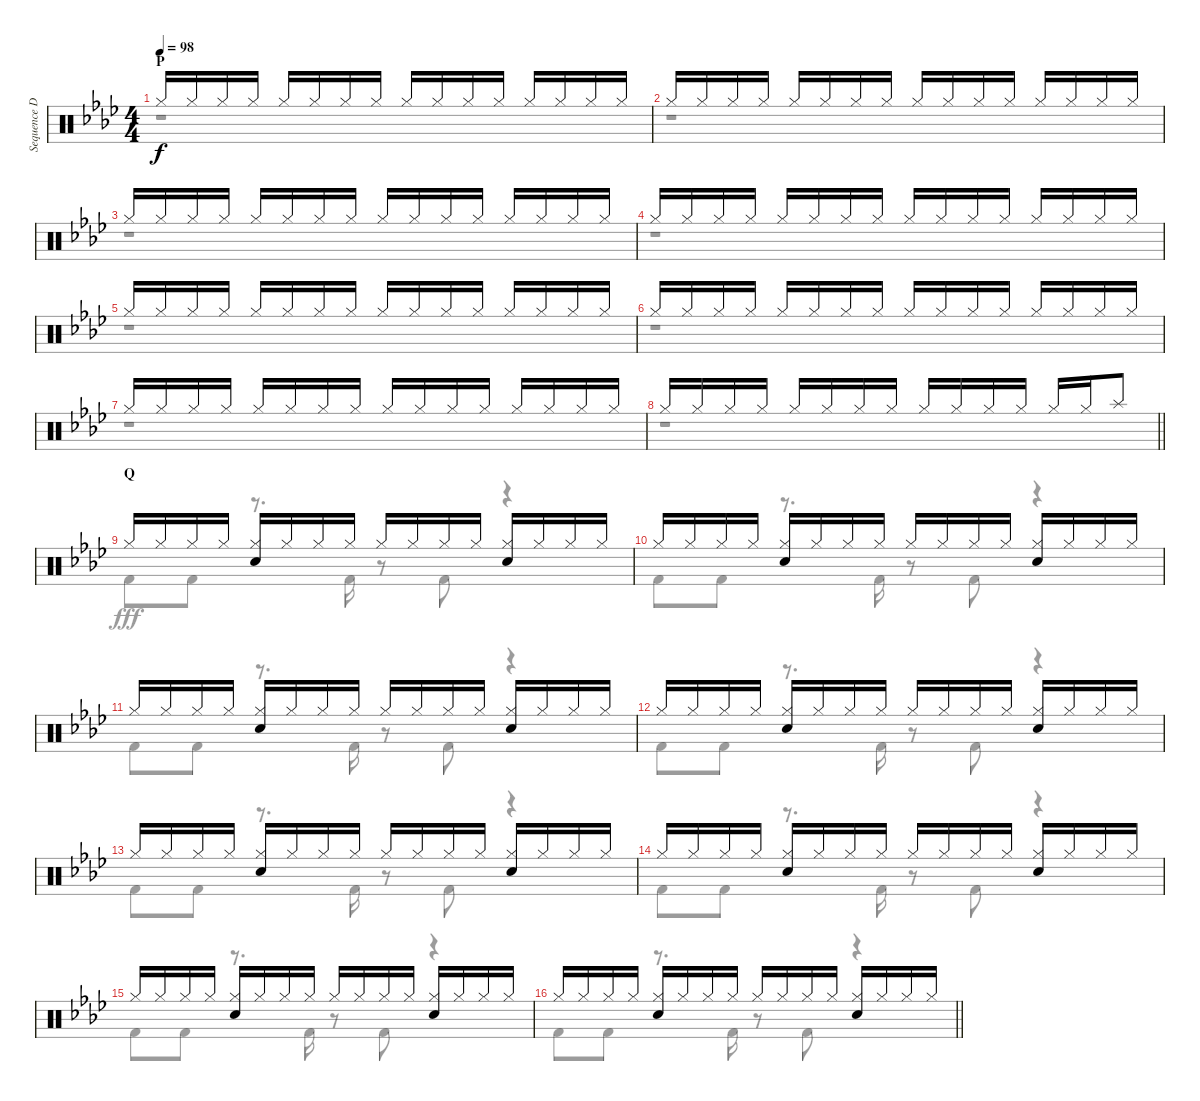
\track ("Sequence Drums I" "Sequence D") {instrument percussion}
\staff {score}
\articulation defaults
\voice
\ts (4 4)
\section ("" "P")
\tempo 98
\clef neutral
\ks ab "Hi-Hat (closed)".16{dy f} "Hi-Hat (closed)".16 "Hi-Hat (closed)".16 "Hi-Hat (closed)".16 "Hi-Hat (closed)".16 "Hi-Hat (closed)".16 "Hi-Hat (closed)".16 "Hi-Hat (closed)".16 "Hi-Hat (closed)".16 "Hi-Hat (closed)".16 "Hi-Hat (closed)".16 "Hi-Hat (closed)".16 "Hi-Hat (closed)".16 "Hi-Hat (closed)".16 "Hi-Hat (closed)".16 "Hi-Hat (closed)".16
|
"Hi-Hat (closed)".16 "Hi-Hat (closed)".16 "Hi-Hat (closed)".16 "Hi-Hat (closed)".16 "Hi-Hat (closed)".16 "Hi-Hat (closed)".16 "Hi-Hat (closed)".16 "Hi-Hat (closed)".16 "Hi-Hat (closed)".16 "Hi-Hat (closed)".16 "Hi-Hat (closed)".16 "Hi-Hat (closed)".16 "Hi-Hat (closed)".16 "Hi-Hat (closed)".16 "Hi-Hat (closed)".16 "Hi-Hat (closed)".16 |
"Hi-Hat (closed)".16 "Hi-Hat (closed)".16 "Hi-Hat (closed)".16 "Hi-Hat (closed)".16 "Hi-Hat (closed)".16 "Hi-Hat (closed)".16 "Hi-Hat (closed)".16 "Hi-Hat (closed)".16 "Hi-Hat (closed)".16 "Hi-Hat (closed)".16 "Hi-Hat (closed)".16 "Hi-Hat (closed)".16 "Hi-Hat (closed)".16 "Hi-Hat (closed)".16 "Hi-Hat (closed)".16 "Hi-Hat (closed)".16 |
"Hi-Hat (closed)".16 "Hi-Hat (closed)".16 "Hi-Hat (closed)".16 "Hi-Hat (closed)".16 "Hi-Hat (closed)".16 "Hi-Hat (closed)".16 "Hi-Hat (closed)".16 "Hi-Hat (closed)".16 "Hi-Hat (closed)".16 "Hi-Hat (closed)".16 "Hi-Hat (closed)".16 "Hi-Hat (closed)".16 "Hi-Hat (closed)".16 "Hi-Hat (closed)".16 "Hi-Hat (closed)".16 "Hi-Hat (closed)".16 |
"Hi-Hat (closed)".16 "Hi-Hat (closed)".16 "Hi-Hat (closed)".16 "Hi-Hat (closed)".16 "Hi-Hat (closed)".16 "Hi-Hat (closed)".16 "Hi-Hat (closed)".16 "Hi-Hat (closed)".16 "Hi-Hat (closed)".16 "Hi-Hat (closed)".16 "Hi-Hat (closed)".16 "Hi-Hat (closed)".16 "Hi-Hat (closed)".16 "Hi-Hat (closed)".16 "Hi-Hat (closed)".16 "Hi-Hat (closed)".16 |
"Hi-Hat (closed)".16 "Hi-Hat (closed)".16 "Hi-Hat (closed)".16 "Hi-Hat (closed)".16 "Hi-Hat (closed)".16 "Hi-Hat (closed)".16 "Hi-Hat (closed)".16 "Hi-Hat (closed)".16 "Hi-Hat (closed)".16 "Hi-Hat (closed)".16 "Hi-Hat (closed)".16 "Hi-Hat (closed)".16 "Hi-Hat (closed)".16 "Hi-Hat (closed)".16 "Hi-Hat (closed)".16 "Hi-Hat (closed)".16 |
"Hi-Hat (closed)".16 "Hi-Hat (closed)".16 "Hi-Hat (closed)".16 "Hi-Hat (closed)".16 "Hi-Hat (closed)".16 "Hi-Hat (closed)".16 "Hi-Hat (closed)".16 "Hi-Hat (closed)".16 "Hi-Hat (closed)".16 "Hi-Hat (closed)".16 "Hi-Hat (closed)".16 "Hi-Hat (closed)".16 "Hi-Hat (closed)".16 "Hi-Hat (closed)".16 "Hi-Hat (closed)".16 "Hi-Hat (closed)".16 |
\barLineRight lightlight "Hi-Hat (closed)".16 "Hi-Hat (closed)".16 "Hi-Hat (closed)".16 "Hi-Hat (closed)".16 "Hi-Hat (closed)".16 "Hi-Hat (closed)".16 "Hi-Hat (closed)".16 "Hi-Hat (closed)".16 "Hi-Hat (closed)".16 "Hi-Hat (closed)".16 "Hi-Hat (closed)".16 "Hi-Hat (closed)".16 "Hi-Hat (closed)".16 "Hi-Hat (closed)".16 "Splash (hit)".8
|
\section ("" "Q")
"Hi-Hat (closed)".16 "Hi-Hat (closed)".16 "Hi-Hat (closed)".16 "Hi-Hat (closed)".16 ("Hi-Hat (closed)" "Electric Snare (hit)").16 "Hi-Hat (closed)".16 "Hi-Hat (closed)".16 "Hi-Hat (closed)".16 "Hi-Hat (closed)".16 "Hi-Hat (closed)".16 "Hi-Hat (closed)".16 "Hi-Hat (closed)".16 ("Hi-Hat (closed)" "Electric Snare (hit)").16 "Hi-Hat (closed)".16 "Hi-Hat (closed)".16 "Hi-Hat (closed)".16 |
"Hi-Hat (closed)".16 "Hi-Hat (closed)".16 "Hi-Hat (closed)".16 "Hi-Hat (closed)".16 ("Hi-Hat (closed)" "Electric Snare (hit)").16 "Hi-Hat (closed)".16 "Hi-Hat (closed)".16 "Hi-Hat (closed)".16 "Hi-Hat (closed)".16 "Hi-Hat (closed)".16 "Hi-Hat (closed)".16 "Hi-Hat (closed)".16 ("Hi-Hat (closed)" "Electric Snare (hit)").16 "Hi-Hat (closed)".16 "Hi-Hat (closed)".16 "Hi-Hat (closed)".16 |
"Hi-Hat (closed)".16 "Hi-Hat (closed)".16 "Hi-Hat (closed)".16 "Hi-Hat (closed)".16 ("Hi-Hat (closed)" "Electric Snare (hit)").16 "Hi-Hat (closed)".16 "Hi-Hat (closed)".16 "Hi-Hat (closed)".16 "Hi-Hat (closed)".16 "Hi-Hat (closed)".16 "Hi-Hat (closed)".16 "Hi-Hat (closed)".16 ("Hi-Hat (closed)" "Electric Snare (hit)").16 "Hi-Hat (closed)".16 "Hi-Hat (closed)".16 "Hi-Hat (closed)".16 |
"Hi-Hat (closed)".16 "Hi-Hat (closed)".16 "Hi-Hat (closed)".16 "Hi-Hat (closed)".16 ("Hi-Hat (closed)" "Electric Snare (hit)").16 "Hi-Hat (closed)".16 "Hi-Hat (closed)".16 "Hi-Hat (closed)".16 "Hi-Hat (closed)".16 "Hi-Hat (closed)".16 "Hi-Hat (closed)".16 "Hi-Hat (closed)".16 ("Hi-Hat (closed)" "Electric Snare (hit)").16 "Hi-Hat (closed)".16 "Hi-Hat (closed)".16 "Hi-Hat (closed)".16 |
"Hi-Hat (closed)".16 "Hi-Hat (closed)".16 "Hi-Hat (closed)".16 "Hi-Hat (closed)".16 ("Hi-Hat (closed)" "Electric Snare (hit)").16 "Hi-Hat (closed)".16 "Hi-Hat (closed)".16 "Hi-Hat (closed)".16 "Hi-Hat (closed)".16 "Hi-Hat (closed)".16 "Hi-Hat (closed)".16 "Hi-Hat (closed)".16 ("Hi-Hat (closed)" "Electric Snare (hit)").16 "Hi-Hat (closed)".16 "Hi-Hat (closed)".16 "Hi-Hat (closed)".16 |
"Hi-Hat (closed)".16 "Hi-Hat (closed)".16 "Hi-Hat (closed)".16 "Hi-Hat (closed)".16 ("Hi-Hat (closed)" "Electric Snare (hit)").16 "Hi-Hat (closed)".16 "Hi-Hat (closed)".16 "Hi-Hat (closed)".16 "Hi-Hat (closed)".16 "Hi-Hat (closed)".16 "Hi-Hat (closed)".16 "Hi-Hat (closed)".16 ("Hi-Hat (closed)" "Electric Snare (hit)").16 "Hi-Hat (closed)".16 "Hi-Hat (closed)".16 "Hi-Hat (closed)".16 |
"Hi-Hat (closed)".16 "Hi-Hat (closed)".16 "Hi-Hat (closed)".16 "Hi-Hat (closed)".16 ("Hi-Hat (closed)" "Electric Snare (hit)").16 "Hi-Hat (closed)".16 "Hi-Hat (closed)".16 "Hi-Hat (closed)".16 "Hi-Hat (closed)".16 "Hi-Hat (closed)".16 "Hi-Hat (closed)".16 "Hi-Hat (closed)".16 ("Hi-Hat (closed)" "Electric Snare (hit)").16 "Hi-Hat (closed)".16 "Hi-Hat (closed)".16 "Hi-Hat (closed)".16 |
\barLineRight lightlight "Hi-Hat (closed)".16 "Hi-Hat (closed)".16 "Hi-Hat (closed)".16 "Hi-Hat (closed)".16
("Hi-Hat (closed)" "Electric Snare (hit)").16 "Hi-Hat (closed)".16 "Hi-Hat (closed)".16 "Hi-Hat (closed)".16 "Hi-Hat (closed)".16 "Hi-Hat (closed)".16 "Hi-Hat (closed)".16 "Hi-Hat (closed)".16 ("Hi-Hat (closed)" "Electric Snare (hit)").16 "Hi-Hat (closed)".16 "Hi-Hat (closed)".16 "Hi-Hat (closed)".16
\voice
\clef neutral
\ottava regular
\simile none
\ks ab
r.1{dy fff} |
r.1 |
r.1 |
r.1 |
r.1 |
r.1 |
r.1 |
\barLineRight lightlight
r.1 |
"Kick (hit) 2".8 "Kick (hit) 2".8 r.8{d} "Kick (hit) 2".16 r.8 "Kick (hit) 2".8 r.4 |
"Kick (hit) 2".8 "Kick (hit) 2".8 r.8{d} "Kick (hit) 2".16 r.8 "Kick (hit) 2".8 r.4 |
"Kick (hit) 2".8 "Kick (hit) 2".8 r.8{d} "Kick (hit) 2".16 r.8 "Kick (hit) 2".8 r.4 |
"Kick (hit) 2".8 "Kick (hit) 2".8 r.8{d} "Kick (hit) 2".16 r.8 "Kick (hit) 2".8 r.4 |
"Kick (hit) 2".8 "Kick (hit) 2".8 r.8{d} "Kick (hit) 2".16 r.8 "Kick (hit) 2".8 r.4 |
"Kick (hit) 2".8 "Kick (hit) 2".8 r.8{d} "Kick (hit) 2".16 r.8 "Kick (hit) 2".8 r.4 |
"Kick (hit) 2".8 "Kick (hit) 2".8 r.8{d} "Kick (hit) 2".16 r.8 "Kick (hit) 2".8 r.4 |
\barLineRight lightlight "Kick (hit) 2".8 "Kick (hit) 2".8
r.8{d} "Kick (hit) 2".16 r.8 "Kick (hit) 2".8 r.4
